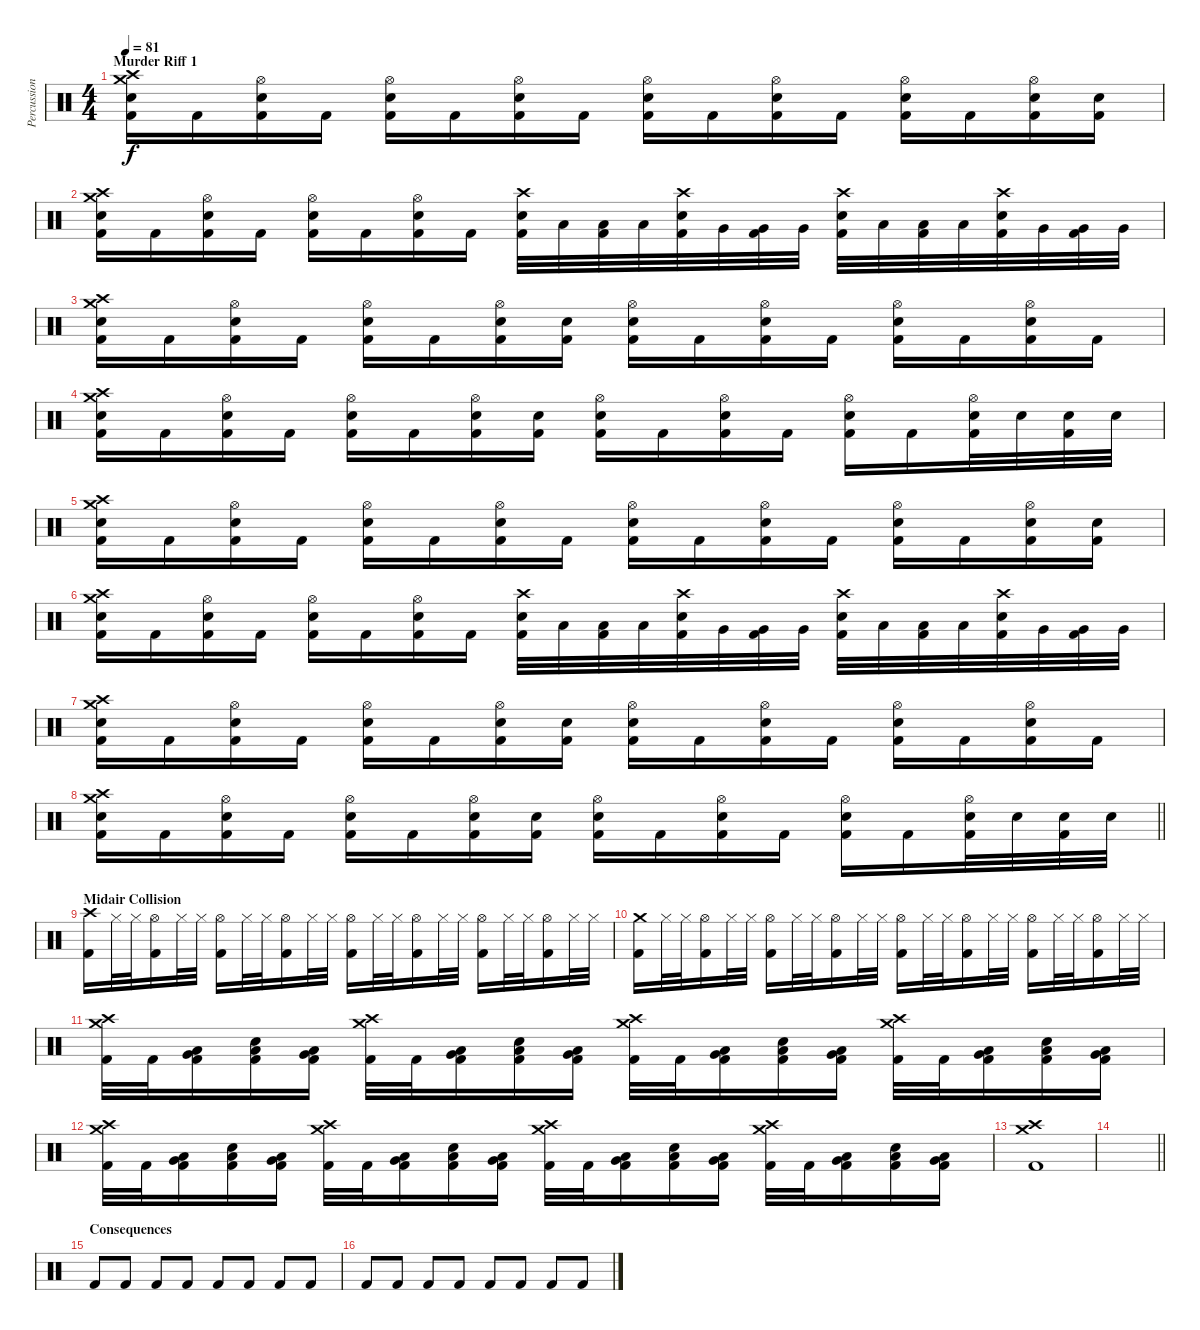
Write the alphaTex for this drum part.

\track ("Percussion" "Percussion") {instrument percussion}
\staff {score}
\articulation defaults
\ts (4 4)
\section ("" "Murder Riff 1")
\tempo 81
\clef neutral
\ks c
("Crash high (hit)" "Crash medium (hit)" "Electric Snare (hit)" "Kick (hit) 2").16{dy f} "Kick (hit) 2".16 ("Hi-Hat (open)" "Electric Snare (hit)" "Kick (hit) 2").16 "Kick (hit) 2".16 ("Hi-Hat (open)" "Electric Snare (hit)" "Kick (hit) 2").16 "Kick (hit) 2".16 ("Hi-Hat (open)" "Electric Snare (hit)" "Kick (hit) 2").16 "Kick (hit) 2".16 ("Hi-Hat (open)" "Electric Snare (hit)" "Kick (hit) 2").16 "Kick (hit) 2".16 ("Hi-Hat (open)" "Electric Snare (hit)" "Kick (hit) 2").16 "Kick (hit) 2".16 ("Hi-Hat (open)" "Electric Snare (hit)" "Kick (hit) 2").16 "Kick (hit) 2".16 ("Hi-Hat (open)" "Electric Snare (hit)" "Kick (hit) 2").16 ("Electric Snare (hit)" "Kick (hit) 2").16 |
("Crash high (hit)" "Crash medium (hit)" "Electric Snare (hit)" "Kick (hit) 2").16 "Kick (hit) 2".16 ("Hi-Hat (open)" "Electric Snare (hit)" "Kick (hit) 2").16 "Kick (hit) 2".16 ("Hi-Hat (open)" "Electric Snare (hit)" "Kick (hit) 2").16 "Kick (hit) 2".16 ("Hi-Hat (open)" "Electric Snare (hit)" "Kick (hit) 2").16 "Kick (hit) 2".16 ("Crash high (hit)" "Electric Snare (hit)" "Kick (hit) 2").32 "Low Tom (hit)".32 ("Low Tom (hit)" "Kick (hit) 2").32 "Low Tom (hit)".32 ("Crash high (hit)" "Electric Snare (hit)" "Kick (hit) 2").32 "Very Low Tom (hit)".32 ("Very Low Tom (hit)" "Kick (hit) 2").32 "Very Low Tom (hit)".32 ("Crash high (hit)" "Electric Snare (hit)" "Kick (hit) 2").32 "Low Floor Tom (hit)".32 ("Low Floor Tom (hit)" "Kick (hit) 2").32 "Low Floor Tom (hit)".32 ("Crash high (hit)" "Electric Snare (hit)" "Kick (hit) 2").32 "Very Low Tom (hit)".32 ("Very Low Tom (hit)" "Kick (hit) 2").32 "Very Low Tom (hit)".32 |
("Crash high (hit)" "Crash medium (hit)" "Electric Snare (hit)" "Kick (hit) 2").16 "Kick (hit) 2".16 ("Hi-Hat (open)" "Electric Snare (hit)" "Kick (hit) 2").16 "Kick (hit) 2".16 ("Hi-Hat (open)" "Electric Snare (hit)" "Kick (hit) 2").16 "Kick (hit) 2".16 ("Hi-Hat (open)" "Electric Snare (hit)" "Kick (hit) 2").16 ("Electric Snare (hit)" "Kick (hit) 2").16 ("Hi-Hat (open)" "Electric Snare (hit)" "Kick (hit) 2").16 "Kick (hit) 2".16 ("Hi-Hat (open)" "Electric Snare (hit)" "Kick (hit) 2").16 "Kick (hit) 2".16 ("Hi-Hat (open)" "Electric Snare (hit)" "Kick (hit) 2").16 "Kick (hit) 2".16 ("Hi-Hat (open)" "Electric Snare (hit)" "Kick (hit) 2").16 "Kick (hit) 2".16 |
("Crash high (hit)" "Crash medium (hit)" "Electric Snare (hit)" "Kick (hit) 2").16 "Kick (hit) 2".16 ("Hi-Hat (open)" "Electric Snare (hit)" "Kick (hit) 2").16 "Kick (hit) 2".16 ("Hi-Hat (open)" "Electric Snare (hit)" "Kick (hit) 2").16 "Kick (hit) 2".16 ("Hi-Hat (open)" "Electric Snare (hit)" "Kick (hit) 2").16 ("Electric Snare (hit)" "Kick (hit) 2").16 ("Hi-Hat (open)" "Electric Snare (hit)" "Kick (hit) 2").16 "Kick (hit) 2".16 ("Hi-Hat (open)" "Electric Snare (hit)" "Kick (hit) 2").16 "Kick (hit) 2".16 ("Hi-Hat (open)" "Electric Snare (hit)" "Kick (hit) 2").16 "Kick (hit) 2".16 ("Hi-Hat (open)" "Electric Snare (hit)" "Kick (hit) 2").32 "Electric Snare (hit)".32 ("Electric Snare (hit)" "Kick (hit) 2").32 "Electric Snare (hit)".32 |
("Crash high (hit)" "Crash medium (hit)" "Electric Snare (hit)" "Kick (hit) 2").16 "Kick (hit) 2".16 ("Hi-Hat (open)" "Electric Snare (hit)" "Kick (hit) 2").16 "Kick (hit) 2".16 ("Hi-Hat (open)" "Electric Snare (hit)" "Kick (hit) 2").16 "Kick (hit) 2".16 ("Hi-Hat (open)" "Electric Snare (hit)" "Kick (hit) 2").16 "Kick (hit) 2".16 ("Hi-Hat (open)" "Electric Snare (hit)" "Kick (hit) 2").16 "Kick (hit) 2".16 ("Hi-Hat (open)" "Electric Snare (hit)" "Kick (hit) 2").16 "Kick (hit) 2".16 ("Hi-Hat (open)" "Electric Snare (hit)" "Kick (hit) 2").16 "Kick (hit) 2".16 ("Hi-Hat (open)" "Electric Snare (hit)" "Kick (hit) 2").16 ("Electric Snare (hit)" "Kick (hit) 2").16 |
("Crash high (hit)" "Crash medium (hit)" "Electric Snare (hit)" "Kick (hit) 2").16 "Kick (hit) 2".16 ("Hi-Hat (open)" "Electric Snare (hit)" "Kick (hit) 2").16 "Kick (hit) 2".16 ("Hi-Hat (open)" "Electric Snare (hit)" "Kick (hit) 2").16 "Kick (hit) 2".16 ("Hi-Hat (open)" "Electric Snare (hit)" "Kick (hit) 2").16 "Kick (hit) 2".16 ("Crash high (hit)" "Electric Snare (hit)" "Kick (hit) 2").32 "Low Tom (hit)".32 ("Low Tom (hit)" "Kick (hit) 2").32 "Low Tom (hit)".32 ("Crash high (hit)" "Electric Snare (hit)" "Kick (hit) 2").32 "Very Low Tom (hit)".32 ("Very Low Tom (hit)" "Kick (hit) 2").32 "Very Low Tom (hit)".32 ("Crash high (hit)" "Electric Snare (hit)" "Kick (hit) 2").32 "Low Floor Tom (hit)".32 ("Low Floor Tom (hit)" "Kick (hit) 2").32 "Low Floor Tom (hit)".32 ("Crash high (hit)" "Electric Snare (hit)" "Kick (hit) 2").32 "Very Low Tom (hit)".32 ("Very Low Tom (hit)" "Kick (hit) 2").32 "Very Low Tom (hit)".32 |
("Crash high (hit)" "Crash medium (hit)" "Electric Snare (hit)" "Kick (hit) 2").16 "Kick (hit) 2".16 ("Hi-Hat (open)" "Electric Snare (hit)" "Kick (hit) 2").16 "Kick (hit) 2".16 ("Hi-Hat (open)" "Electric Snare (hit)" "Kick (hit) 2").16 "Kick (hit) 2".16 ("Hi-Hat (open)" "Electric Snare (hit)" "Kick (hit) 2").16 ("Electric Snare (hit)" "Kick (hit) 2").16 ("Hi-Hat (open)" "Electric Snare (hit)" "Kick (hit) 2").16 "Kick (hit) 2".16 ("Hi-Hat (open)" "Electric Snare (hit)" "Kick (hit) 2").16 "Kick (hit) 2".16 ("Hi-Hat (open)" "Electric Snare (hit)" "Kick (hit) 2").16 "Kick (hit) 2".16 ("Hi-Hat (open)" "Electric Snare (hit)" "Kick (hit) 2").16 "Kick (hit) 2".16 |
\barLineRight lightlight
("Crash high (hit)" "Crash medium (hit)" "Electric Snare (hit)" "Kick (hit) 2").16 "Kick (hit) 2".16 ("Hi-Hat (open)" "Electric Snare (hit)" "Kick (hit) 2").16 "Kick (hit) 2".16 ("Hi-Hat (open)" "Electric Snare (hit)" "Kick (hit) 2").16 "Kick (hit) 2".16 ("Hi-Hat (open)" "Electric Snare (hit)" "Kick (hit) 2").16 ("Electric Snare (hit)" "Kick (hit) 2").16 ("Hi-Hat (open)" "Electric Snare (hit)" "Kick (hit) 2").16 "Kick (hit) 2".16 ("Hi-Hat (open)" "Electric Snare (hit)" "Kick (hit) 2").16 "Kick (hit) 2".16 ("Hi-Hat (open)" "Electric Snare (hit)" "Kick (hit) 2").16 "Kick (hit) 2".16 ("Hi-Hat (open)" "Electric Snare (hit)" "Kick (hit) 2").32 "Electric Snare (hit)".32 ("Electric Snare (hit)" "Kick (hit) 2").32 "Electric Snare (hit)".32 |
\section ("" "Midair Collision")
("Crash high (hit)" "Kick (hit) 2").16 "Hi-Hat (closed)".32 "Hi-Hat (closed)".32 ("Hi-Hat (open)" "Kick (hit) 2").16 "Hi-Hat (closed)".32 "Hi-Hat (closed)".32 ("Hi-Hat (open)" "Kick (hit) 2").16 "Hi-Hat (closed)".32 "Hi-Hat (closed)".32 ("Hi-Hat (open)" "Kick (hit) 2").16 "Hi-Hat (closed)".32 "Hi-Hat (closed)".32 ("Hi-Hat (open)" "Kick (hit) 2").16 "Hi-Hat (closed)".32 "Hi-Hat (closed)".32 ("Hi-Hat (open)" "Kick (hit) 2").16 "Hi-Hat (closed)".32 "Hi-Hat (closed)".32 ("Hi-Hat (open)" "Kick (hit) 2").16 "Hi-Hat (closed)".32 "Hi-Hat (closed)".32 ("Hi-Hat (open)" "Kick (hit) 2").16 "Hi-Hat (closed)".32 "Hi-Hat (closed)".32 |
("Crash medium (hit)" "Kick (hit) 2").16 "Hi-Hat (closed)".32 "Hi-Hat (closed)".32 ("Hi-Hat (open)" "Kick (hit) 2").16 "Hi-Hat (closed)".32 "Hi-Hat (closed)".32 ("Hi-Hat (open)" "Kick (hit) 2").16 "Hi-Hat (closed)".32 "Hi-Hat (closed)".32 ("Hi-Hat (open)" "Kick (hit) 2").16 "Hi-Hat (closed)".32 "Hi-Hat (closed)".32 ("Hi-Hat (open)" "Kick (hit) 2").16 "Hi-Hat (closed)".32 "Hi-Hat (closed)".32 ("Hi-Hat (open)" "Kick (hit) 2").16 "Hi-Hat (closed)".32 "Hi-Hat (closed)".32 ("Hi-Hat (open)" "Kick (hit) 2").16 "Hi-Hat (closed)".32 "Hi-Hat (closed)".32 ("Hi-Hat (open)" "Kick (hit) 2").16 "Hi-Hat (closed)".32 "Hi-Hat (closed)".32 |
("Crash high (hit)" "Crash medium (hit)" "Kick (hit) 2").32 "Kick (hit) 2".32 ("Very Low Tom (hit)" "Low Floor Tom (hit)" "Kick (hit) 2").16 ("Low Floor Tom (hit)" "Electric Snare (hit)" "Kick (hit) 2").16 ("Very Low Tom (hit)" "Low Floor Tom (hit)" "Kick (hit) 2").16 ("Crash high (hit)" "Crash medium (hit)" "Kick (hit) 2").32 "Kick (hit) 2".32 ("Very Low Tom (hit)" "Low Floor Tom (hit)" "Kick (hit) 2").16 ("Low Floor Tom (hit)" "Electric Snare (hit)" "Kick (hit) 2").16 ("Very Low Tom (hit)" "Low Floor Tom (hit)" "Kick (hit) 2").16 ("Crash high (hit)" "Crash medium (hit)" "Kick (hit) 2").32 "Kick (hit) 2".32 ("Very Low Tom (hit)" "Low Floor Tom (hit)" "Kick (hit) 2").16 ("Low Floor Tom (hit)" "Electric Snare (hit)" "Kick (hit) 2").16 ("Very Low Tom (hit)" "Low Floor Tom (hit)" "Kick (hit) 2").16 ("Crash high (hit)" "Crash medium (hit)" "Kick (hit) 2").32 "Kick (hit) 2".32 ("Very Low Tom (hit)" "Low Floor Tom (hit)" "Kick (hit) 2").16 ("Low Floor Tom (hit)" "Electric Snare (hit)" "Kick (hit) 2").16 ("Very Low Tom (hit)" "Low Floor Tom (hit)" "Kick (hit) 2").16 |
("Crash high (hit)" "Crash medium (hit)" "Kick (hit) 2").32 "Kick (hit) 2".32 ("Very Low Tom (hit)" "Low Floor Tom (hit)" "Kick (hit) 2").16 ("Low Floor Tom (hit)" "Electric Snare (hit)" "Kick (hit) 2").16 ("Very Low Tom (hit)" "Low Floor Tom (hit)" "Kick (hit) 2").16 ("Crash high (hit)" "Crash medium (hit)" "Kick (hit) 2").32 "Kick (hit) 2".32 ("Very Low Tom (hit)" "Low Floor Tom (hit)" "Kick (hit) 2").16 ("Low Floor Tom (hit)" "Electric Snare (hit)" "Kick (hit) 2").16 ("Very Low Tom (hit)" "Low Floor Tom (hit)" "Kick (hit) 2").16 ("Crash high (hit)" "Crash medium (hit)" "Kick (hit) 2").32 "Kick (hit) 2".32 ("Very Low Tom (hit)" "Low Floor Tom (hit)" "Kick (hit) 2").16 ("Low Floor Tom (hit)" "Electric Snare (hit)" "Kick (hit) 2").16 ("Very Low Tom (hit)" "Low Floor Tom (hit)" "Kick (hit) 2").16 ("Crash high (hit)" "Crash medium (hit)" "Kick (hit) 2").32 "Kick (hit) 2".32 ("Very Low Tom (hit)" "Low Floor Tom (hit)" "Kick (hit) 2").16 ("Low Floor Tom (hit)" "Electric Snare (hit)" "Kick (hit) 2").16 ("Very Low Tom (hit)" "Low Floor Tom (hit)" "Kick (hit) 2").16 |
("Crash medium (hit)" "Crash high (hit)" "Kick (hit) 2").1 |
\barLineRight lightlight
|
\section ("" "Consequences")
"Kick (hit) 2".8 "Kick (hit) 2".8 "Kick (hit) 2".8 "Kick (hit) 2".8 "Kick (hit) 2".8 "Kick (hit) 2".8 "Kick (hit) 2".8 "Kick (hit) 2".8 |
"Kick (hit) 2".8 "Kick (hit) 2".8 "Kick (hit) 2".8 "Kick (hit) 2".8 "Kick (hit) 2".8 "Kick (hit) 2".8 "Kick (hit) 2".8 "Kick (hit) 2".8
